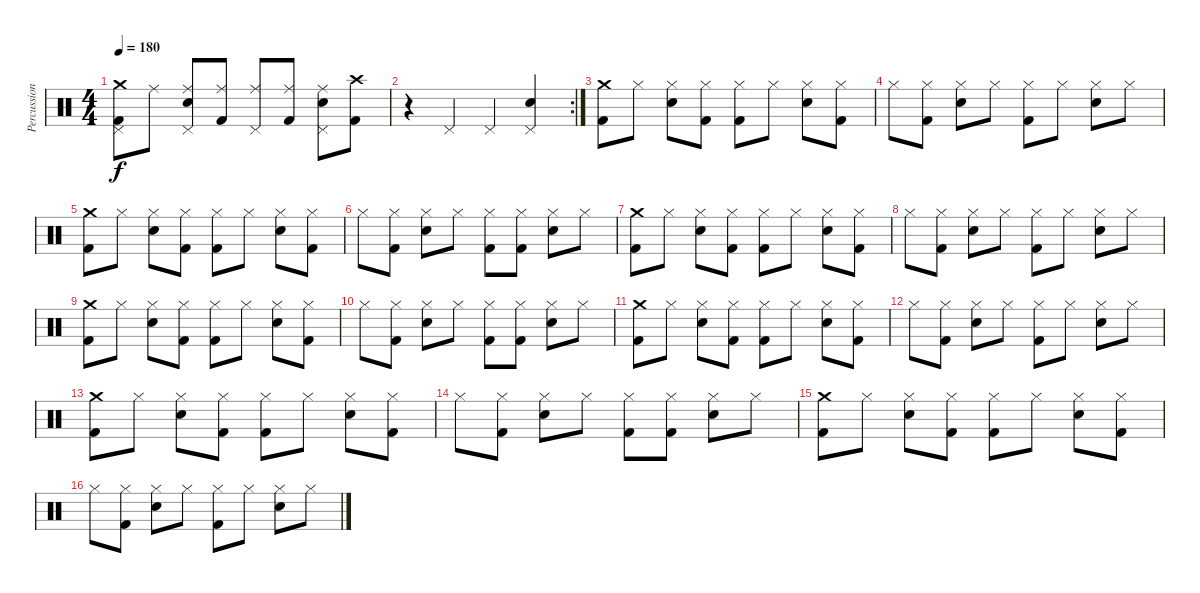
\track ("Percussion" "Percussion") {instrument percussion}
\staff {score}
\articulation defaults
\ts (4 4)
\tempo 180
\clef neutral
\ks c
("Crash medium (hit)" "Pedal Hi-Hat (hit)" "Kick (hit) 2").8{dy f} "Ride (middle)".8 ("Ride (middle)" "Pedal Hi-Hat (hit)" "Electric Snare (hit)").8 ("Ride (middle)" "Kick (hit) 2").8 ("Ride (middle)" "Pedal Hi-Hat (hit)").8 ("Ride (middle)" "Kick (hit) 2").8 ("Ride (middle)" "Pedal Hi-Hat (hit)" "Electric Snare (hit)").8 ("Crash high (hit)" "Kick (hit) 2").8 |
\rc 2
r.4 "Pedal Hi-Hat (hit)".4 "Pedal Hi-Hat (hit)".4 ("Pedal Hi-Hat (hit)" "Electric Snare (hit)").4 |
("Crash medium (hit)" "Kick (hit) 2").8 "Hi-Hat (closed)".8 ("Hi-Hat (closed)" "Electric Snare (hit)").8 ("Hi-Hat (closed)" "Kick (hit) 2").8 ("Hi-Hat (closed)" "Kick (hit) 2").8 "Hi-Hat (closed)".8 ("Hi-Hat (closed)" "Electric Snare (hit)").8 ("Hi-Hat (closed)" "Kick (hit) 2").8 |
"Hi-Hat (closed)".8 ("Hi-Hat (closed)" "Kick (hit) 2").8 ("Hi-Hat (closed)" "Electric Snare (hit)").8 "Hi-Hat (closed)".8 ("Hi-Hat (closed)" "Kick (hit) 2").8 "Hi-Hat (closed)".8 ("Hi-Hat (closed)" "Electric Snare (hit)").8 "Hi-Hat (closed)".8 |
("Crash medium (hit)" "Kick (hit) 2").8 "Hi-Hat (closed)".8 ("Hi-Hat (closed)" "Electric Snare (hit)").8 ("Hi-Hat (closed)" "Kick (hit) 2").8 ("Hi-Hat (closed)" "Kick (hit) 2").8 "Hi-Hat (closed)".8 ("Hi-Hat (closed)" "Electric Snare (hit)").8 ("Hi-Hat (closed)" "Kick (hit) 2").8 |
"Hi-Hat (closed)".8 ("Hi-Hat (closed)" "Kick (hit) 2").8 ("Hi-Hat (closed)" "Electric Snare (hit)").8 "Hi-Hat (closed)".8 ("Hi-Hat (closed)" "Kick (hit) 2").8 ("Hi-Hat (closed)" "Kick (hit) 2").8 ("Hi-Hat (closed)" "Electric Snare (hit)").8 "Hi-Hat (closed)".8 |
("Crash medium (hit)" "Kick (hit) 2").8 "Hi-Hat (closed)".8 ("Hi-Hat (closed)" "Electric Snare (hit)").8 ("Hi-Hat (closed)" "Kick (hit) 2").8 ("Hi-Hat (closed)" "Kick (hit) 2").8 "Hi-Hat (closed)".8 ("Hi-Hat (closed)" "Electric Snare (hit)").8 ("Hi-Hat (closed)" "Kick (hit) 2").8 |
"Hi-Hat (closed)".8 ("Hi-Hat (closed)" "Kick (hit) 2").8 ("Hi-Hat (closed)" "Electric Snare (hit)").8 "Hi-Hat (closed)".8 ("Hi-Hat (closed)" "Kick (hit) 2").8 "Hi-Hat (closed)".8 ("Hi-Hat (closed)" "Electric Snare (hit)").8 "Hi-Hat (closed)".8 |
("Crash medium (hit)" "Kick (hit) 2").8 "Hi-Hat (closed)".8 ("Hi-Hat (closed)" "Electric Snare (hit)").8 ("Hi-Hat (closed)" "Kick (hit) 2").8 ("Hi-Hat (closed)" "Kick (hit) 2").8 "Hi-Hat (closed)".8 ("Hi-Hat (closed)" "Electric Snare (hit)").8 ("Hi-Hat (closed)" "Kick (hit) 2").8 |
"Hi-Hat (closed)".8 ("Hi-Hat (closed)" "Kick (hit) 2").8 ("Hi-Hat (closed)" "Electric Snare (hit)").8 "Hi-Hat (closed)".8 ("Hi-Hat (closed)" "Kick (hit) 2").8 ("Hi-Hat (closed)" "Kick (hit) 2").8 ("Hi-Hat (closed)" "Electric Snare (hit)").8 "Hi-Hat (closed)".8 |
("Crash medium (hit)" "Kick (hit) 2").8 "Hi-Hat (closed)".8 ("Hi-Hat (closed)" "Electric Snare (hit)").8 ("Hi-Hat (closed)" "Kick (hit) 2").8 ("Hi-Hat (closed)" "Kick (hit) 2").8 "Hi-Hat (closed)".8 ("Hi-Hat (closed)" "Electric Snare (hit)").8 ("Hi-Hat (closed)" "Kick (hit) 2").8 |
"Hi-Hat (closed)".8 ("Hi-Hat (closed)" "Kick (hit) 2").8 ("Hi-Hat (closed)" "Electric Snare (hit)").8 "Hi-Hat (closed)".8 ("Hi-Hat (closed)" "Kick (hit) 2").8 "Hi-Hat (closed)".8 ("Hi-Hat (closed)" "Electric Snare (hit)").8 "Hi-Hat (closed)".8 |
("Crash medium (hit)" "Kick (hit) 2").8 "Hi-Hat (closed)".8 ("Hi-Hat (closed)" "Electric Snare (hit)").8 ("Hi-Hat (closed)" "Kick (hit) 2").8 ("Hi-Hat (closed)" "Kick (hit) 2").8 "Hi-Hat (closed)".8 ("Hi-Hat (closed)" "Electric Snare (hit)").8 ("Hi-Hat (closed)" "Kick (hit) 2").8 |
"Hi-Hat (closed)".8 ("Hi-Hat (closed)" "Kick (hit) 2").8 ("Hi-Hat (closed)" "Electric Snare (hit)").8 "Hi-Hat (closed)".8 ("Hi-Hat (closed)" "Kick (hit) 2").8 ("Hi-Hat (closed)" "Kick (hit) 2").8 ("Hi-Hat (closed)" "Electric Snare (hit)").8 "Hi-Hat (closed)".8 |
("Crash medium (hit)" "Kick (hit) 2").8 "Hi-Hat (closed)".8 ("Hi-Hat (closed)" "Electric Snare (hit)").8 ("Hi-Hat (closed)" "Kick (hit) 2").8 ("Hi-Hat (closed)" "Kick (hit) 2").8 "Hi-Hat (closed)".8 ("Hi-Hat (closed)" "Electric Snare (hit)").8 ("Hi-Hat (closed)" "Kick (hit) 2").8 |
"Hi-Hat (closed)".8 ("Hi-Hat (closed)" "Kick (hit) 2").8 ("Hi-Hat (closed)" "Electric Snare (hit)").8 "Hi-Hat (closed)".8 ("Hi-Hat (closed)" "Kick (hit) 2").8 "Hi-Hat (closed)".8 ("Hi-Hat (closed)" "Electric Snare (hit)").8 "Hi-Hat (closed)".8
